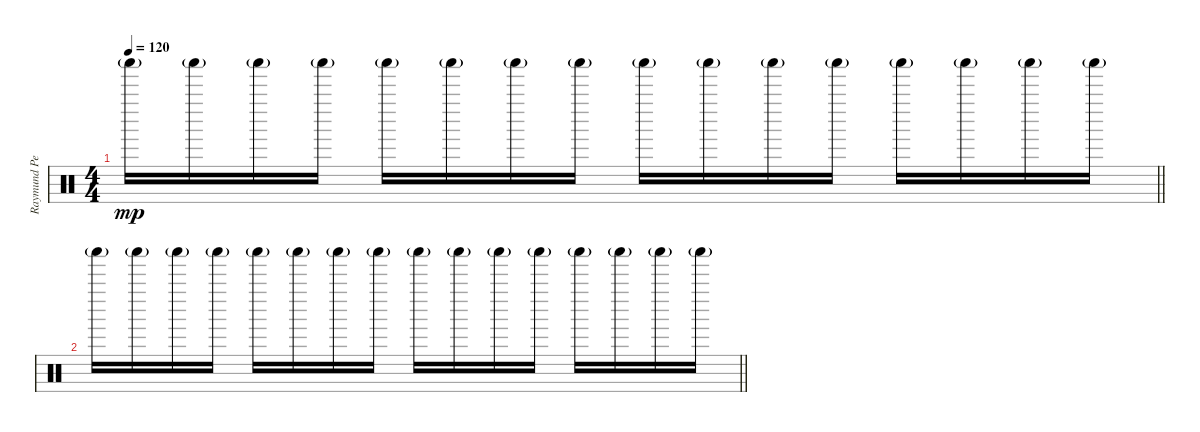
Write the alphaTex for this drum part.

\track ("Raymund Percussion" "Raymund Pe") {instrument percussion}
\staff {score}
\articulation defaults
\ts (4 4)
\tempo 120
\clef neutral
\barLineRight lightlight
\ks c "Shaker (hit)"{g}.16{dy mp} "Shaker (hit)"{g}.16 "Shaker (hit)"{g}.16 "Shaker (hit)"{g}.16 "Shaker (hit)"{g}.16 "Shaker (hit)"{g}.16 "Shaker (hit)"{g}.16 "Shaker (hit)"{g}.16 "Shaker (hit)"{g}.16 "Shaker (hit)"{g}.16 "Shaker (hit)"{g}.16 "Shaker (hit)"{g}.16 "Shaker (hit)"{g}.16 "Shaker (hit)"{g}.16 "Shaker (hit)"{g}.16 "Shaker (hit)"{g}.16
|
\barLineRight lightlight "Shaker (hit)"{g}.16 "Shaker (hit)"{g}.16 "Shaker (hit)"{g}.16 "Shaker (hit)"{g}.16 "Shaker (hit)"{g}.16 "Shaker (hit)"{g}.16 "Shaker (hit)"{g}.16 "Shaker (hit)"{g}.16 "Shaker (hit)"{g}.16 "Shaker (hit)"{g}.16 "Shaker (hit)"{g}.16 "Shaker (hit)"{g}.16 "Shaker (hit)"{g}.16 "Shaker (hit)"{g}.16 "Shaker (hit)"{g}.16 "Shaker (hit)"{g}.16
